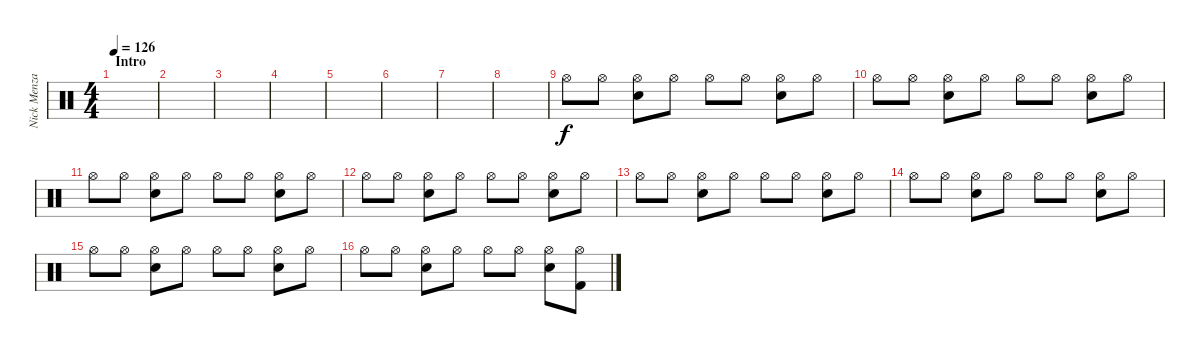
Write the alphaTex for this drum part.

\track ("Nick Menza" "Nick Menza") {instrument percussion}
\staff {score}
\articulation defaults
\ts (4 4)
\section ("" "Intro")
\tempo 126
\clef neutral
\ks c
|
|
|
|
|
|
|
|
"Hi-Hat (open)".8 "Hi-Hat (open)".8 ("Snare (hit) 2" "Hi-Hat (open)").8 "Hi-Hat (open)".8 "Hi-Hat (open)".8 "Hi-Hat (open)".8 ("Snare (hit) 2" "Hi-Hat (open)").8 "Hi-Hat (open)".8 |
"Hi-Hat (open)".8 "Hi-Hat (open)".8 ("Snare (hit) 2" "Hi-Hat (open)").8 "Hi-Hat (open)".8 "Hi-Hat (open)".8 "Hi-Hat (open)".8 ("Snare (hit) 2" "Hi-Hat (open)").8 "Hi-Hat (open)".8 |
"Hi-Hat (open)".8 "Hi-Hat (open)".8 ("Snare (hit) 2" "Hi-Hat (open)").8 "Hi-Hat (open)".8 "Hi-Hat (open)".8 "Hi-Hat (open)".8 ("Snare (hit) 2" "Hi-Hat (open)").8 "Hi-Hat (open)".8 |
"Hi-Hat (open)".8 "Hi-Hat (open)".8 ("Snare (hit) 2" "Hi-Hat (open)").8 "Hi-Hat (open)".8 "Hi-Hat (open)".8 "Hi-Hat (open)".8 ("Snare (hit) 2" "Hi-Hat (open)").8 "Hi-Hat (open)".8 |
"Hi-Hat (open)".8 "Hi-Hat (open)".8 ("Snare (hit) 2" "Hi-Hat (open)").8 "Hi-Hat (open)".8 "Hi-Hat (open)".8 "Hi-Hat (open)".8 ("Snare (hit) 2" "Hi-Hat (open)").8 "Hi-Hat (open)".8 |
"Hi-Hat (open)".8 "Hi-Hat (open)".8 ("Snare (hit) 2" "Hi-Hat (open)").8 "Hi-Hat (open)".8 "Hi-Hat (open)".8 "Hi-Hat (open)".8 ("Snare (hit) 2" "Hi-Hat (open)").8 "Hi-Hat (open)".8 |
"Hi-Hat (open)".8 "Hi-Hat (open)".8 ("Snare (hit) 2" "Hi-Hat (open)").8 "Hi-Hat (open)".8 "Hi-Hat (open)".8 "Hi-Hat (open)".8 ("Snare (hit) 2" "Hi-Hat (open)").8 "Hi-Hat (open)".8 |
"Hi-Hat (open)".8 "Hi-Hat (open)".8 ("Snare (hit) 2" "Hi-Hat (open)").8 "Hi-Hat (open)".8 "Hi-Hat (open)".8 "Hi-Hat (open)".8 ("Snare (hit) 2" "Hi-Hat (open)").8 ("Hi-Hat (open)" "Kick (hit) 2").8
